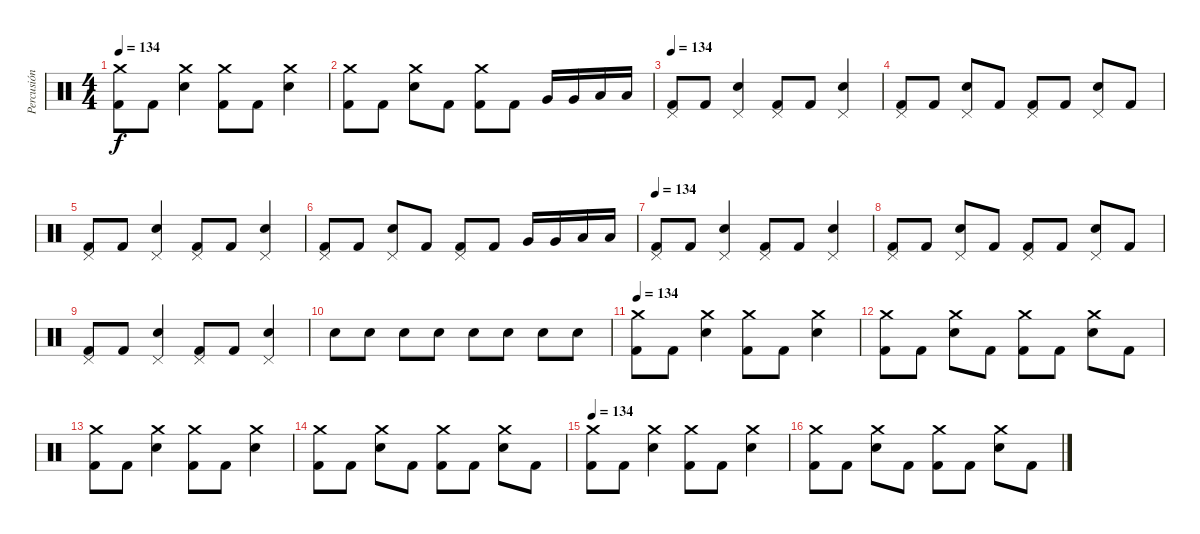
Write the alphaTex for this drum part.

\track ("Percusión" "Percusión") {instrument percussion}
\staff {score}
\articulation defaults
\ts (4 4)
\tempo 134
\clef neutral
\ks c
("Kick (hit) 2" "Crash medium (hit)").8{dy f} "Kick (hit) 2".8 ("Electric Snare (hit)" "Crash medium (hit)").4 ("Kick (hit) 2" "Crash medium (hit)").8 "Kick (hit) 2".8 ("Electric Snare (hit)" "Crash medium (hit)").4 |
("Kick (hit) 2" "Crash medium (hit)").8 "Kick (hit) 2".8 ("Electric Snare (hit)" "Crash medium (hit)").8 "Kick (hit) 2".8 ("Kick (hit) 2" "Crash medium (hit)").8 "Kick (hit) 2".8 "Very Low Tom (hit)".16 "Very Low Tom (hit)".16 "Low Floor Tom (hit)".16 "Low Floor Tom (hit)".16 |
\tempo 134
("Kick (hit) 2" "Pedal Hi-Hat (hit)").8 "Kick (hit) 2".8 ("Electric Snare (hit)" "Pedal Hi-Hat (hit)").4 ("Kick (hit) 2" "Pedal Hi-Hat (hit)").8 "Kick (hit) 2".8 ("Electric Snare (hit)" "Pedal Hi-Hat (hit)").4 |
("Kick (hit) 2" "Pedal Hi-Hat (hit)").8 "Kick (hit) 2".8 ("Electric Snare (hit)" "Pedal Hi-Hat (hit)").8 "Kick (hit) 2".8 ("Kick (hit) 2" "Pedal Hi-Hat (hit)").8 "Kick (hit) 2".8 ("Electric Snare (hit)" "Pedal Hi-Hat (hit)").8 "Kick (hit) 2".8 |
("Kick (hit) 2" "Pedal Hi-Hat (hit)").8 "Kick (hit) 2".8 ("Electric Snare (hit)" "Pedal Hi-Hat (hit)").4 ("Kick (hit) 2" "Pedal Hi-Hat (hit)").8 "Kick (hit) 2".8 ("Electric Snare (hit)" "Pedal Hi-Hat (hit)").4 |
("Kick (hit) 2" "Pedal Hi-Hat (hit)").8 "Kick (hit) 2".8 ("Electric Snare (hit)" "Pedal Hi-Hat (hit)").8 "Kick (hit) 2".8 ("Kick (hit) 2" "Pedal Hi-Hat (hit)").8 "Kick (hit) 2".8 "Very Low Tom (hit)".16 "Very Low Tom (hit)".16 "Low Floor Tom (hit)".16 "Low Floor Tom (hit)".16 |
\tempo 134
("Kick (hit) 2" "Pedal Hi-Hat (hit)").8 "Kick (hit) 2".8 ("Electric Snare (hit)" "Pedal Hi-Hat (hit)").4 ("Kick (hit) 2" "Pedal Hi-Hat (hit)").8 "Kick (hit) 2".8 ("Electric Snare (hit)" "Pedal Hi-Hat (hit)").4 |
("Kick (hit) 2" "Pedal Hi-Hat (hit)").8 "Kick (hit) 2".8 ("Electric Snare (hit)" "Pedal Hi-Hat (hit)").8 "Kick (hit) 2".8 ("Kick (hit) 2" "Pedal Hi-Hat (hit)").8 "Kick (hit) 2".8 ("Electric Snare (hit)" "Pedal Hi-Hat (hit)").8 "Kick (hit) 2".8 |
("Kick (hit) 2" "Pedal Hi-Hat (hit)").8 "Kick (hit) 2".8 ("Electric Snare (hit)" "Pedal Hi-Hat (hit)").4 ("Kick (hit) 2" "Pedal Hi-Hat (hit)").8 "Kick (hit) 2".8 ("Electric Snare (hit)" "Pedal Hi-Hat (hit)").4 |
"Electric Snare (hit)".8 "Electric Snare (hit)".8 "Electric Snare (hit)".8 "Electric Snare (hit)".8 "Electric Snare (hit)".8 "Electric Snare (hit)".8 "Electric Snare (hit)".8 "Electric Snare (hit)".8 |
\tempo 134
("Kick (hit) 2" "Crash medium (hit)").8 "Kick (hit) 2".8 ("Electric Snare (hit)" "Crash medium (hit)").4 ("Kick (hit) 2" "Crash medium (hit)").8 "Kick (hit) 2".8 ("Electric Snare (hit)" "Crash medium (hit)").4 |
("Kick (hit) 2" "Crash medium (hit)").8 "Kick (hit) 2".8 ("Electric Snare (hit)" "Crash medium (hit)").8 "Kick (hit) 2".8 ("Kick (hit) 2" "Crash medium (hit)").8 "Kick (hit) 2".8 ("Electric Snare (hit)" "Crash medium (hit)").8 "Kick (hit) 2".8 |
("Kick (hit) 2" "Crash medium (hit)").8 "Kick (hit) 2".8 ("Electric Snare (hit)" "Crash medium (hit)").4 ("Kick (hit) 2" "Crash medium (hit)").8 "Kick (hit) 2".8 ("Electric Snare (hit)" "Crash medium (hit)").4 |
("Kick (hit) 2" "Crash medium (hit)").8 "Kick (hit) 2".8 ("Electric Snare (hit)" "Crash medium (hit)").8 "Kick (hit) 2".8 ("Kick (hit) 2" "Crash medium (hit)").8 "Kick (hit) 2".8 ("Electric Snare (hit)" "Crash medium (hit)").8 "Kick (hit) 2".8 |
\tempo 134
("Kick (hit) 2" "Crash medium (hit)").8 "Kick (hit) 2".8 ("Electric Snare (hit)" "Crash medium (hit)").4 ("Kick (hit) 2" "Crash medium (hit)").8 "Kick (hit) 2".8 ("Electric Snare (hit)" "Crash medium (hit)").4 |
("Kick (hit) 2" "Crash medium (hit)").8 "Kick (hit) 2".8 ("Electric Snare (hit)" "Crash medium (hit)").8 "Kick (hit) 2".8 ("Kick (hit) 2" "Crash medium (hit)").8 "Kick (hit) 2".8 ("Electric Snare (hit)" "Crash medium (hit)").8 "Kick (hit) 2".8
